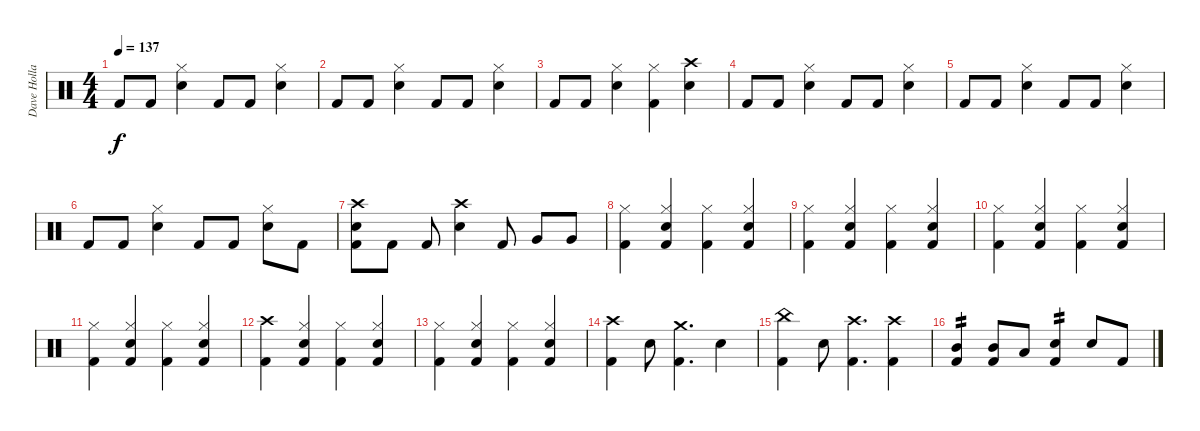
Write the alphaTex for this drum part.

\track ("Dave Holland" "Dave Holla") {instrument percussion}
\staff {score}
\articulation defaults
\ts (4 4)
\tempo 137
\clef neutral
\ks c "Kick (hit) 2".8{dy f} "Kick (hit) 2".8
("Hi-Hat (closed)" "Snare (hit) 2").4 "Kick (hit) 2".8 "Kick (hit) 2".8 ("Hi-Hat (closed)" "Snare (hit) 2").4 |
"Kick (hit) 2".8 "Kick (hit) 2".8 ("Hi-Hat (closed)" "Snare (hit) 2").4 "Kick (hit) 2".8 "Kick (hit) 2".8 ("Hi-Hat (closed)" "Snare (hit) 2").4 |
"Kick (hit) 2".8 "Kick (hit) 2".8 ("Hi-Hat (closed)" "Snare (hit) 2").4 ("Hi-Hat (closed)" "Kick (hit) 2").4 ("Crash high (hit)" "Snare (hit) 2").4 |
"Kick (hit) 2".8 "Kick (hit) 2".8 ("Hi-Hat (closed)" "Snare (hit) 2").4 "Kick (hit) 2".8 "Kick (hit) 2".8 ("Hi-Hat (closed)" "Snare (hit) 2").4 |
"Kick (hit) 2".8 "Kick (hit) 2".8 ("Hi-Hat (closed)" "Snare (hit) 2").4 "Kick (hit) 2".8 "Kick (hit) 2".8 ("Hi-Hat (closed)" "Snare (hit) 2").4 |
"Kick (hit) 2".8 "Kick (hit) 2".8 ("Hi-Hat (closed)" "Snare (hit) 2").4 "Kick (hit) 2".8 "Kick (hit) 2".8 ("Hi-Hat (closed)" "Snare (hit) 2").8 "Kick (hit) 2".8 |
("Crash high (hit)" "Snare (hit) 2" "Kick (hit) 2").8 "Kick (hit) 2".8 "Kick (hit) 2".8 ("Crash high (hit)" "Snare (hit) 2").4 "Kick (hit) 2".8 "Very Low Tom (hit)".8 "Very Low Tom (hit)".8 |
("Hi-Hat (closed)" "Kick (hit) 2").4 ("Hi-Hat (closed)" "Snare (hit) 2" "Kick (hit) 2").4 ("Hi-Hat (closed)" "Kick (hit) 2").4 ("Hi-Hat (closed)" "Snare (hit) 2" "Kick (hit) 2").4 |
("Hi-Hat (closed)" "Kick (hit) 2").4 ("Hi-Hat (closed)" "Snare (hit) 2" "Kick (hit) 2").4 ("Hi-Hat (closed)" "Kick (hit) 2").4 ("Hi-Hat (closed)" "Snare (hit) 2" "Kick (hit) 2").4 |
("Hi-Hat (closed)" "Kick (hit) 2").4 ("Hi-Hat (closed)" "Snare (hit) 2" "Kick (hit) 2").4 ("Hi-Hat (closed)" "Kick (hit) 2").4 ("Hi-Hat (closed)" "Snare (hit) 2" "Kick (hit) 2").4 |
("Hi-Hat (closed)" "Kick (hit) 2").4 ("Hi-Hat (closed)" "Snare (hit) 2" "Kick (hit) 2").4 ("Hi-Hat (closed)" "Kick (hit) 2").4 ("Hi-Hat (closed)" "Snare (hit) 2" "Kick (hit) 2").4 |
("Crash high (hit)" "Kick (hit) 2").4 ("Hi-Hat (closed)" "Snare (hit) 2" "Kick (hit) 2").4 ("Hi-Hat (closed)" "Kick (hit) 2").4 ("Hi-Hat (closed)" "Snare (hit) 2" "Kick (hit) 2").4 |
("Hi-Hat (closed)" "Kick (hit) 2").4 ("Hi-Hat (closed)" "Snare (hit) 2" "Kick (hit) 2").4 ("Hi-Hat (closed)" "Kick (hit) 2").4 ("Hi-Hat (closed)" "Snare (hit) 2" "Kick (hit) 2").4 |
("Crash high (hit)" "Kick (hit) 2").4 "Snare (hit) 2".8 ("Crash medium (hit)" "Kick (hit) 2").4{d} "Snare (hit) 2".4 |
("China (hit)" "Kick (hit) 2").4 "Snare (hit) 2".8 ("Crash high (hit)" "Kick (hit) 2").4{d} ("Crash high (hit)" "Kick (hit) 2").4 |
("Mid Tom (hit)" "Kick (hit) 2").4{tp 2} ("Mid Tom (hit)" "Kick (hit) 2").8 "Low Tom (hit)".8 ("Snare (hit) 2" "Kick (hit) 2").4{tp 2} "Snare (hit) 2".8 "Kick (hit) 2".8
